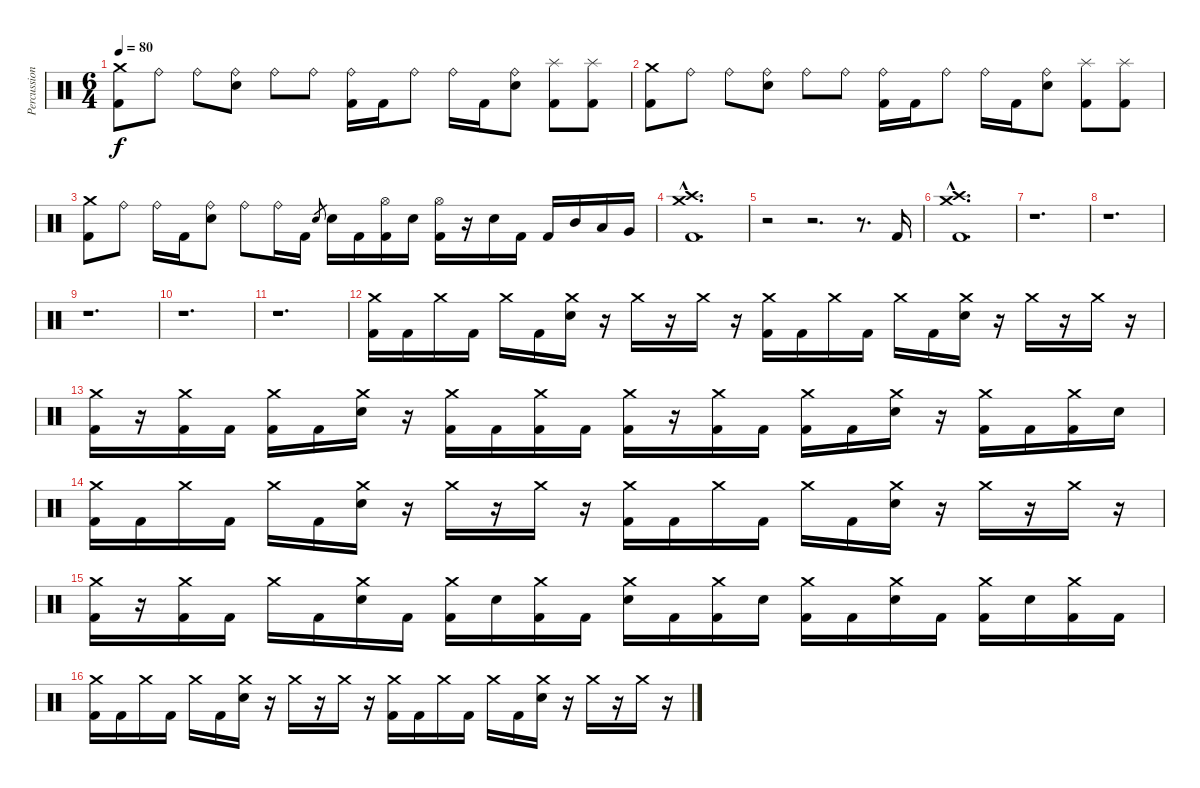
\track ("Percussion" "Percussion") {instrument percussion}
\staff {score}
\articulation defaults
\ts (6 4)
\tempo 80
\clef neutral
\ks c
("Crash medium (hit)" "Kick (hit) 2").8{dy f} "Ride (bell)".8 "Ride (bell)".8 ("Ride (bell)" "Electric Snare (hit)").8 "Ride (bell)".8 "Ride (bell)".8 ("Ride (bell)" "Kick (hit) 2").16 "Kick (hit) 2".16 "Ride (bell)".8 "Ride (bell)".16 "Kick (hit) 2".16 ("Ride (bell)" "Electric Snare (hit)").8 ("Splash (hit)" "Kick (hit) 2").8 ("Splash (hit)" "Kick (hit) 2").8 |
("Crash medium (hit)" "Kick (hit) 2").8 "Ride (bell)".8 "Ride (bell)".8 ("Ride (bell)" "Electric Snare (hit)").8 "Ride (bell)".8 "Ride (bell)".8 ("Ride (bell)" "Kick (hit) 2").16 "Kick (hit) 2".16 "Ride (bell)".8 "Ride (bell)".16 "Kick (hit) 2".16 ("Ride (bell)" "Electric Snare (hit)").8 ("Splash (hit)" "Kick (hit) 2").8 ("Splash (hit)" "Kick (hit) 2").8 |
("Crash medium (hit)" "Kick (hit) 2").8 "Ride (bell)".8 "Ride (bell)".16 "Kick (hit) 2".16 ("Ride (bell)" "Electric Snare (hit)").8 "Ride (bell)".8 "Ride (bell)".16 "Kick (hit) 2".16 "Electric Snare (hit)".8{gr} "Electric Snare (hit)".16 "Kick (hit) 2".16 ("Hi-Hat (open)" "Kick (hit) 2").16 "Electric Snare (hit)".16 ("Hi-Hat (open)" "Kick (hit) 2").16 r.16 "Electric Snare (hit)".16 "Kick (hit) 2".16 "Kick (hit) 2".16 "Mid Tom (hit)".16 "Low Tom (hit)".16 "Very Low Tom (hit)".16 |
("Crash medium (hit)"{hac} "Crash high (hit)"{hac} "Kick (hit) 2"{hac}).1{d} |
r.2 r.2{d} r.8{d} "Kick (hit) 2".16 |
("Crash medium (hit)"{hac} "Crash high (hit)"{hac} "Kick (hit) 2"{hac}).1{d} |
r.1{d} |
r.1{d} |
r.1{d} |
r.1{d} |
r.1{d} |
("Crash medium (hit)" "Kick (hit) 2").16 "Kick (hit) 2".16 "Crash medium (hit)".16 "Kick (hit) 2".16 "Crash medium (hit)".16 "Kick (hit) 2".16 ("Crash medium (hit)" "Electric Snare (hit)").16 r.16 "Crash medium (hit)".16 r.16 "Crash medium (hit)".16 r.16 ("Crash medium (hit)" "Kick (hit) 2").16 "Kick (hit) 2".16 "Crash medium (hit)".16 "Kick (hit) 2".16 "Crash medium (hit)".16 "Kick (hit) 2".16 ("Crash medium (hit)" "Electric Snare (hit)").16 r.16 "Crash medium (hit)".16 r.16 "Crash medium (hit)".16 r.16 |
("Crash medium (hit)" "Kick (hit) 2").16 r.16 ("Crash medium (hit)" "Kick (hit) 2").16 "Kick (hit) 2".16 ("Crash medium (hit)" "Kick (hit) 2").16 "Kick (hit) 2".16 ("Crash medium (hit)" "Electric Snare (hit)").16 r.16 ("Crash medium (hit)" "Kick (hit) 2").16 "Kick (hit) 2".16 ("Crash medium (hit)" "Kick (hit) 2").16 "Kick (hit) 2".16 ("Crash medium (hit)" "Kick (hit) 2").16 r.16 ("Crash medium (hit)" "Kick (hit) 2").16 "Kick (hit) 2".16 ("Crash medium (hit)" "Kick (hit) 2").16 "Kick (hit) 2".16 ("Crash medium (hit)" "Electric Snare (hit)").16 r.16 ("Crash medium (hit)" "Kick (hit) 2").16 "Kick (hit) 2".16 ("Crash medium (hit)" "Kick (hit) 2").16 "Electric Snare (hit)".16 |
("Crash medium (hit)" "Kick (hit) 2").16 "Kick (hit) 2".16 "Crash medium (hit)".16 "Kick (hit) 2".16 "Crash medium (hit)".16 "Kick (hit) 2".16 ("Crash medium (hit)" "Electric Snare (hit)").16 r.16 "Crash medium (hit)".16 r.16 "Crash medium (hit)".16 r.16 ("Crash medium (hit)" "Kick (hit) 2").16 "Kick (hit) 2".16 "Crash medium (hit)".16 "Kick (hit) 2".16 "Crash medium (hit)".16 "Kick (hit) 2".16 ("Crash medium (hit)" "Electric Snare (hit)").16 r.16 "Crash medium (hit)".16 r.16 "Crash medium (hit)".16 r.16 |
("Crash medium (hit)" "Kick (hit) 2").16 r.16 ("Crash medium (hit)" "Kick (hit) 2").16 "Kick (hit) 2".16 "Crash medium (hit)".16 "Kick (hit) 2".16 ("Crash medium (hit)" "Electric Snare (hit)").16 "Kick (hit) 2".16 ("Crash medium (hit)" "Kick (hit) 2").16 "Electric Snare (hit)".16 ("Crash medium (hit)" "Kick (hit) 2").16 "Kick (hit) 2".16 ("Crash medium (hit)" "Electric Snare (hit)").16 "Kick (hit) 2".16 ("Crash medium (hit)" "Kick (hit) 2").16 "Electric Snare (hit)".16 ("Crash medium (hit)" "Kick (hit) 2").16 "Kick (hit) 2".16 ("Crash medium (hit)" "Electric Snare (hit)").16 "Kick (hit) 2".16 ("Crash medium (hit)" "Kick (hit) 2").16 "Electric Snare (hit)".16 ("Crash medium (hit)" "Kick (hit) 2").16 "Kick (hit) 2".16 |
("Crash medium (hit)" "Kick (hit) 2").16 "Kick (hit) 2".16 "Crash medium (hit)".16 "Kick (hit) 2".16 "Crash medium (hit)".16 "Kick (hit) 2".16 ("Crash medium (hit)" "Electric Snare (hit)").16 r.16 "Crash medium (hit)".16 r.16 "Crash medium (hit)".16 r.16 ("Crash medium (hit)" "Kick (hit) 2").16 "Kick (hit) 2".16 "Crash medium (hit)".16 "Kick (hit) 2".16 "Crash medium (hit)".16 "Kick (hit) 2".16 ("Crash medium (hit)" "Electric Snare (hit)").16 r.16 "Crash medium (hit)".16 r.16 "Crash medium (hit)".16 r.16
